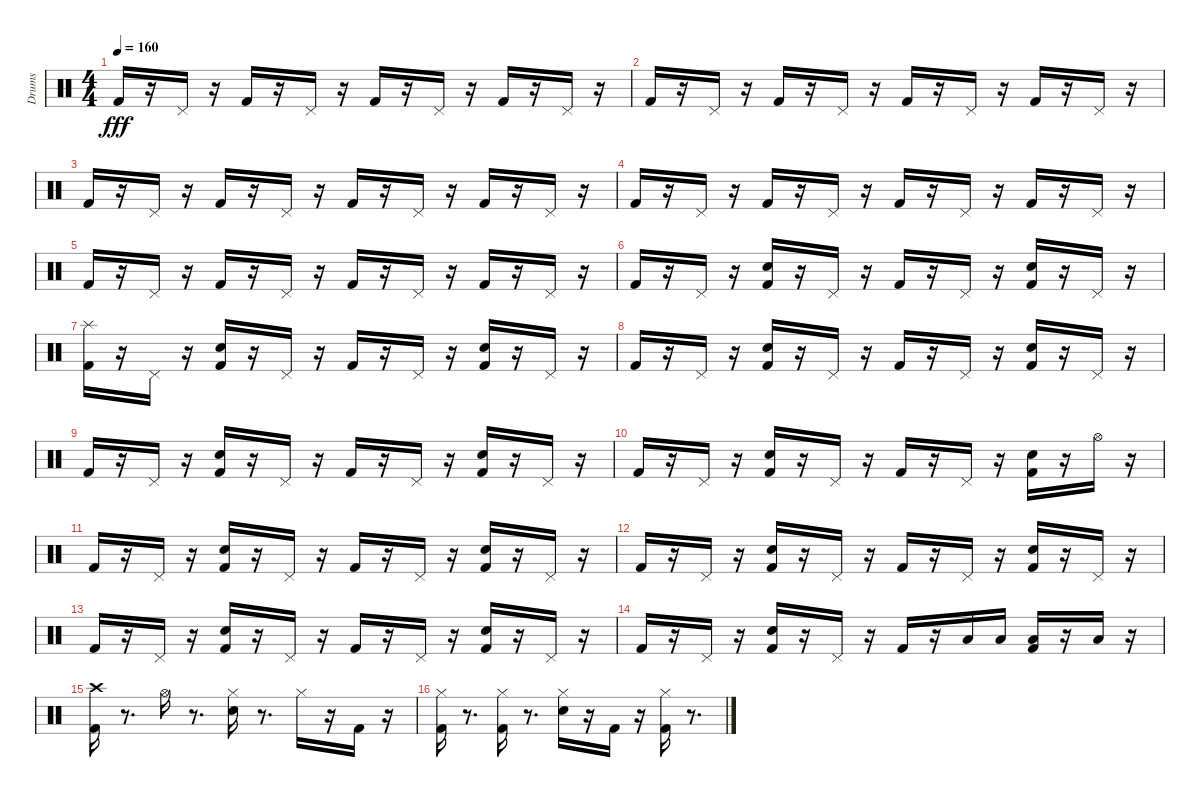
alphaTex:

\track ("Drums" "Drums") {instrument percussion}
\staff {score}
\articulation defaults
\ts (4 4)
\tempo 160
\clef neutral
\ks c "Kick (hit) 2".16{dy fff}
r.16 "Pedal Hi-Hat (hit)".16 r.16 "Kick (hit) 2".16 r.16 "Pedal Hi-Hat (hit)".16 r.16 "Kick (hit) 2".16 r.16 "Pedal Hi-Hat (hit)".16 r.16 "Kick (hit) 2".16 r.16 "Pedal Hi-Hat (hit)".16 r.16 |
"Kick (hit) 2".16 r.16 "Pedal Hi-Hat (hit)".16 r.16 "Kick (hit) 2".16 r.16 "Pedal Hi-Hat (hit)".16 r.16 "Kick (hit) 2".16 r.16 "Pedal Hi-Hat (hit)".16 r.16 "Kick (hit) 2".16 r.16 "Pedal Hi-Hat (hit)".16 r.16 |
"Kick (hit) 2".16 r.16 "Pedal Hi-Hat (hit)".16 r.16 "Kick (hit) 2".16 r.16 "Pedal Hi-Hat (hit)".16 r.16 "Kick (hit) 2".16 r.16 "Pedal Hi-Hat (hit)".16 r.16 "Kick (hit) 2".16 r.16 "Pedal Hi-Hat (hit)".16 r.16 |
"Kick (hit) 2".16 r.16 "Pedal Hi-Hat (hit)".16 r.16 "Kick (hit) 2".16 r.16 "Pedal Hi-Hat (hit)".16 r.16 "Kick (hit) 2".16 r.16 "Pedal Hi-Hat (hit)".16 r.16 "Kick (hit) 2".16 r.16 "Pedal Hi-Hat (hit)".16 r.16 |
"Kick (hit) 2".16 r.16 "Pedal Hi-Hat (hit)".16 r.16 "Kick (hit) 2".16 r.16 "Pedal Hi-Hat (hit)".16 r.16 "Kick (hit) 2".16 r.16 "Pedal Hi-Hat (hit)".16 r.16 "Kick (hit) 2".16 r.16 "Pedal Hi-Hat (hit)".16 r.16 |
"Kick (hit) 2".16 r.16 "Pedal Hi-Hat (hit)".16 r.16 ("Electric Snare (hit)" "Kick (hit) 2").16 r.16 "Pedal Hi-Hat (hit)".16 r.16 "Kick (hit) 2".16 r.16 "Pedal Hi-Hat (hit)".16 r.16 ("Electric Snare (hit)" "Kick (hit) 2").16 r.16 "Pedal Hi-Hat (hit)".16 r.16 |
("Splash (hit)" "Kick (hit) 2").16 r.16 "Pedal Hi-Hat (hit)".16 r.16 ("Electric Snare (hit)" "Kick (hit) 2").16 r.16 "Pedal Hi-Hat (hit)".16 r.16 "Kick (hit) 2".16 r.16 "Pedal Hi-Hat (hit)".16 r.16 ("Electric Snare (hit)" "Kick (hit) 2").16 r.16 "Pedal Hi-Hat (hit)".16 r.16 |
"Kick (hit) 2".16 r.16 "Pedal Hi-Hat (hit)".16 r.16 ("Electric Snare (hit)" "Kick (hit) 2").16 r.16 "Pedal Hi-Hat (hit)".16 r.16 "Kick (hit) 2".16 r.16 "Pedal Hi-Hat (hit)".16 r.16 ("Electric Snare (hit)" "Kick (hit) 2").16 r.16 "Pedal Hi-Hat (hit)".16 r.16 |
"Kick (hit) 2".16 r.16 "Pedal Hi-Hat (hit)".16 r.16 ("Electric Snare (hit)" "Kick (hit) 2").16 r.16 "Pedal Hi-Hat (hit)".16 r.16 "Kick (hit) 2".16 r.16 "Pedal Hi-Hat (hit)".16 r.16 ("Electric Snare (hit)" "Kick (hit) 2").16 r.16 "Pedal Hi-Hat (hit)".16 r.16 |
"Kick (hit) 2".16 r.16 "Pedal Hi-Hat (hit)".16 r.16 ("Electric Snare (hit)" "Kick (hit) 2").16 r.16 "Pedal Hi-Hat (hit)".16 r.16 "Kick (hit) 2".16 r.16 "Pedal Hi-Hat (hit)".16 r.16 ("Electric Snare (hit)" "Kick (hit) 2").16 r.16 "Hi-Hat (open)".16 r.16 |
"Kick (hit) 2".16 r.16 "Pedal Hi-Hat (hit)".16 r.16 ("Electric Snare (hit)" "Kick (hit) 2").16 r.16 "Pedal Hi-Hat (hit)".16 r.16 "Kick (hit) 2".16 r.16 "Pedal Hi-Hat (hit)".16 r.16 ("Electric Snare (hit)" "Kick (hit) 2").16 r.16 "Pedal Hi-Hat (hit)".16 r.16 |
"Kick (hit) 2".16 r.16 "Pedal Hi-Hat (hit)".16 r.16 ("Electric Snare (hit)" "Kick (hit) 2").16 r.16 "Pedal Hi-Hat (hit)".16 r.16 "Kick (hit) 2".16 r.16 "Pedal Hi-Hat (hit)".16 r.16 ("Electric Snare (hit)" "Kick (hit) 2").16 r.16 "Pedal Hi-Hat (hit)".16 r.16 |
"Kick (hit) 2".16 r.16 "Pedal Hi-Hat (hit)".16 r.16 ("Electric Snare (hit)" "Kick (hit) 2").16 r.16 "Pedal Hi-Hat (hit)".16 r.16 "Kick (hit) 2".16 r.16 "Pedal Hi-Hat (hit)".16 r.16 ("Electric Snare (hit)" "Kick (hit) 2").16 r.16 "Pedal Hi-Hat (hit)".16 r.16 |
"Kick (hit) 2".16 r.16 "Pedal Hi-Hat (hit)".16 r.16 ("Electric Snare (hit)" "Kick (hit) 2").16 r.16 "Pedal Hi-Hat (hit)".16 r.16 "Kick (hit) 2".16 r.16 "Low Tom (hit)".16 "Low Tom (hit)".16 ("Low Tom (hit)" "Kick (hit) 2").16 r.16 "Low Tom (hit)".16 r.16 |
("Kick (hit) 2" "Crash high (hit)").16 r.8{d} "Hi-Hat (open)".16 r.8{d} ("Hi-Hat (closed)" "Electric Snare (hit)").16 r.8{d} "Hi-Hat (closed)".16 r.16 "Kick (hit) 2".16 r.16 |
("Hi-Hat (closed)" "Kick (hit) 2").16 r.8{d} ("Hi-Hat (closed)" "Kick (hit) 2").16 r.8{d} ("Hi-Hat (closed)" "Electric Snare (hit)").16 r.16 "Kick (hit) 2".16 r.16 ("Kick (hit) 2" "Hi-Hat (closed)").16 r.8{d}
